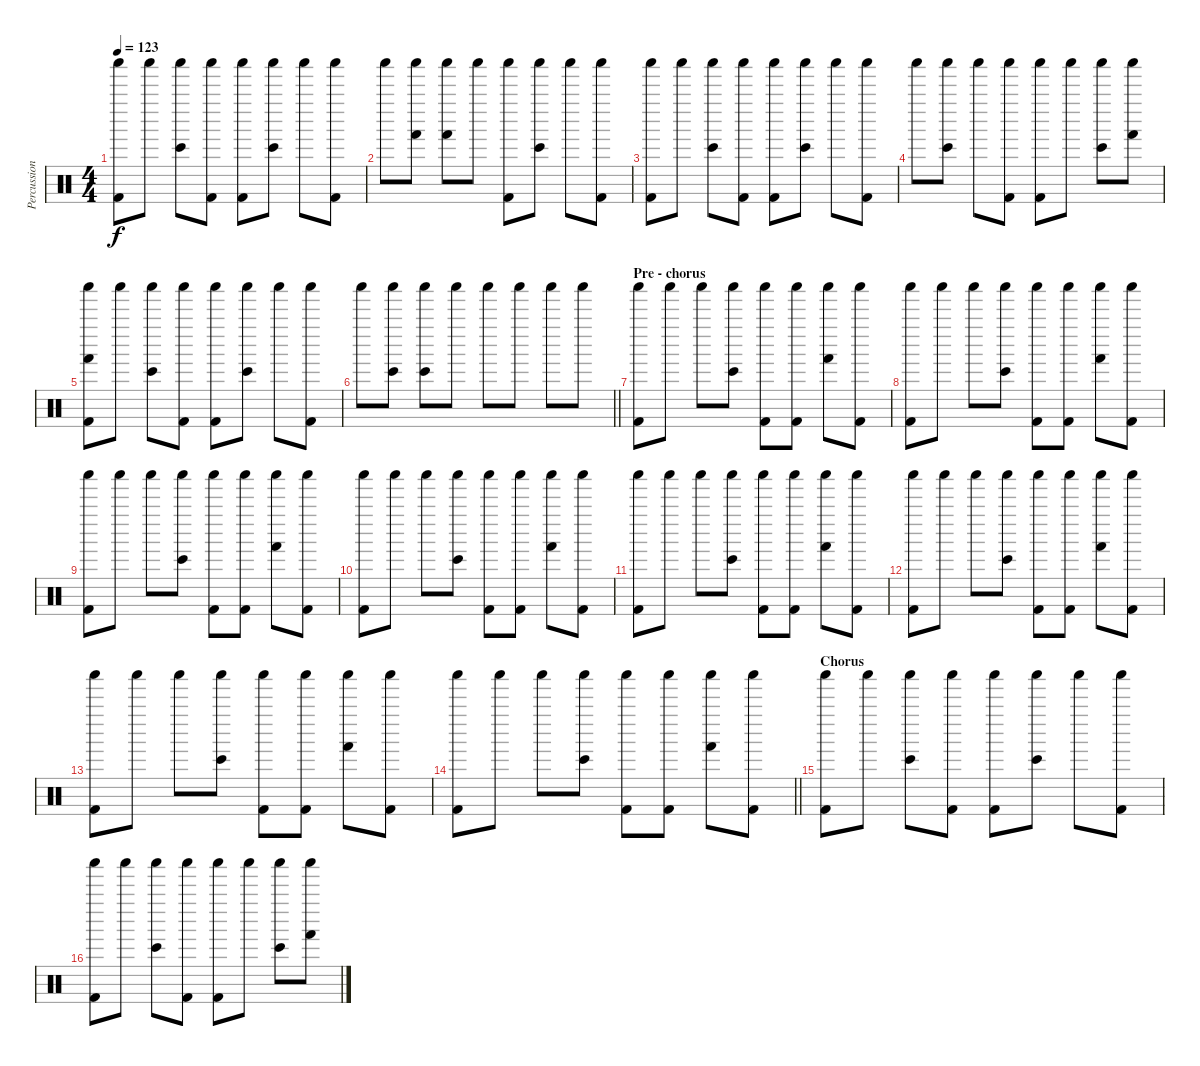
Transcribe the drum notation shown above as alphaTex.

\track ("Percussion" "Percussion") {instrument percussion}
\staff {score}
\articulation defaults
\ts (4 4)
\tempo 123
\clef neutral
\ks c
("Shaker (hit)" "Kick (hit) 2").8{dy f} "Shaker (hit)".8 ("Shaker (hit)" "Bongo High (hit)").8 ("Shaker (hit)" "Kick (hit) 2").8 ("Shaker (hit)" "Kick (hit) 2").8 ("Shaker (hit)" "Bongo High (hit)").8 "Shaker (hit)".8 ("Shaker (hit)" "Kick (hit) 2").8 |
"Shaker (hit)".8 ("Shaker (hit)" "Hand (hit)").8 ("Shaker (hit)" "Hand (hit)").8 "Shaker (hit)".8 ("Shaker (hit)" "Kick (hit) 2").8 ("Shaker (hit)" "Bongo High (hit)").8 "Shaker (hit)".8 ("Shaker (hit)" "Kick (hit) 2").8 |
("Shaker (hit)" "Kick (hit) 2").8 "Shaker (hit)".8 ("Shaker (hit)" "Bongo High (hit)").8 ("Shaker (hit)" "Kick (hit) 2").8 ("Shaker (hit)" "Kick (hit) 2").8 ("Shaker (hit)" "Bongo High (hit)").8 "Shaker (hit)".8 ("Shaker (hit)" "Kick (hit) 2").8 |
"Shaker (hit)".8 ("Shaker (hit)" "Bongo High (hit)").8 "Shaker (hit)".8 ("Shaker (hit)" "Kick (hit) 2").8 ("Shaker (hit)" "Kick (hit) 2").8 "Shaker (hit)".8 ("Shaker (hit)" "Bongo High (hit)").8 ("Shaker (hit)" "Hand (hit)").8 |
("Shaker (hit)" "Kick (hit) 2" "Hand (hit)").8 "Shaker (hit)".8 ("Shaker (hit)" "Bongo High (hit)").8 ("Shaker (hit)" "Kick (hit) 2").8 ("Shaker (hit)" "Kick (hit) 2").8 ("Shaker (hit)" "Bongo High (hit)").8 "Shaker (hit)".8 ("Shaker (hit)" "Kick (hit) 2").8 |
\barLineRight lightlight "Shaker (hit)".8
("Shaker (hit)" "Bongo High (hit)").8 ("Shaker (hit)" "Bongo High (hit)").8 "Shaker (hit)".8 "Shaker (hit)".8 "Shaker (hit)".8 "Shaker (hit)".8 "Shaker (hit)".8 |
\section ("" "Pre - chorus")
("Shaker (hit)" "Kick (hit) 2").8 "Shaker (hit)".8 "Shaker (hit)".8 ("Shaker (hit)" "Bongo High (hit)").8 ("Shaker (hit)" "Kick (hit) 2").8 ("Shaker (hit)" "Kick (hit) 2").8 ("Shaker (hit)" "Hand (hit)").8 ("Shaker (hit)" "Kick (hit) 2").8 |
("Shaker (hit)" "Kick (hit) 2").8 "Shaker (hit)".8 "Shaker (hit)".8 ("Shaker (hit)" "Bongo High (hit)").8 ("Shaker (hit)" "Kick (hit) 2").8 ("Shaker (hit)" "Kick (hit) 2").8 ("Shaker (hit)" "Hand (hit)").8 ("Shaker (hit)" "Kick (hit) 2").8 |
("Shaker (hit)" "Kick (hit) 2").8 "Shaker (hit)".8 "Shaker (hit)".8 ("Shaker (hit)" "Bongo High (hit)").8 ("Shaker (hit)" "Kick (hit) 2").8 ("Shaker (hit)" "Kick (hit) 2").8 ("Shaker (hit)" "Hand (hit)").8 ("Shaker (hit)" "Kick (hit) 2").8 |
("Shaker (hit)" "Kick (hit) 2").8 "Shaker (hit)".8 "Shaker (hit)".8 ("Shaker (hit)" "Bongo High (hit)").8 ("Shaker (hit)" "Kick (hit) 2").8 ("Shaker (hit)" "Kick (hit) 2").8 ("Shaker (hit)" "Hand (hit)").8 ("Shaker (hit)" "Kick (hit) 2").8 |
("Shaker (hit)" "Kick (hit) 2").8 "Shaker (hit)".8 "Shaker (hit)".8 ("Shaker (hit)" "Bongo High (hit)").8 ("Shaker (hit)" "Kick (hit) 2").8 ("Shaker (hit)" "Kick (hit) 2").8 ("Shaker (hit)" "Hand (hit)").8 ("Shaker (hit)" "Kick (hit) 2").8 |
("Shaker (hit)" "Kick (hit) 2").8 "Shaker (hit)".8 "Shaker (hit)".8 ("Shaker (hit)" "Bongo High (hit)").8 ("Shaker (hit)" "Kick (hit) 2").8 ("Shaker (hit)" "Kick (hit) 2").8 ("Shaker (hit)" "Hand (hit)").8 ("Shaker (hit)" "Kick (hit) 2").8 |
("Shaker (hit)" "Kick (hit) 2").8 "Shaker (hit)".8 "Shaker (hit)".8 ("Shaker (hit)" "Bongo High (hit)").8 ("Shaker (hit)" "Kick (hit) 2").8 ("Shaker (hit)" "Kick (hit) 2").8 ("Shaker (hit)" "Hand (hit)").8 ("Shaker (hit)" "Kick (hit) 2").8 |
\barLineRight lightlight
("Shaker (hit)" "Kick (hit) 2").8 "Shaker (hit)".8 "Shaker (hit)".8 ("Shaker (hit)" "Bongo High (hit)").8 ("Shaker (hit)" "Kick (hit) 2").8 ("Shaker (hit)" "Kick (hit) 2").8 ("Shaker (hit)" "Hand (hit)").8 ("Shaker (hit)" "Kick (hit) 2").8 |
\section ("" "Chorus")
("Shaker (hit)" "Kick (hit) 2").8 "Shaker (hit)".8 ("Shaker (hit)" "Bongo High (hit)").8 ("Shaker (hit)" "Kick (hit) 2").8 ("Shaker (hit)" "Kick (hit) 2").8 ("Shaker (hit)" "Bongo High (hit)").8 "Shaker (hit)".8 ("Shaker (hit)" "Kick (hit) 2").8 |
("Shaker (hit)" "Kick (hit) 2").8 "Shaker (hit)".8 ("Shaker (hit)" "Bongo High (hit)").8 ("Shaker (hit)" "Kick (hit) 2").8 ("Shaker (hit)" "Kick (hit) 2").8 "Shaker (hit)".8 ("Shaker (hit)" "Bongo High (hit)").8 ("Shaker (hit)" "Hand (hit)").8
